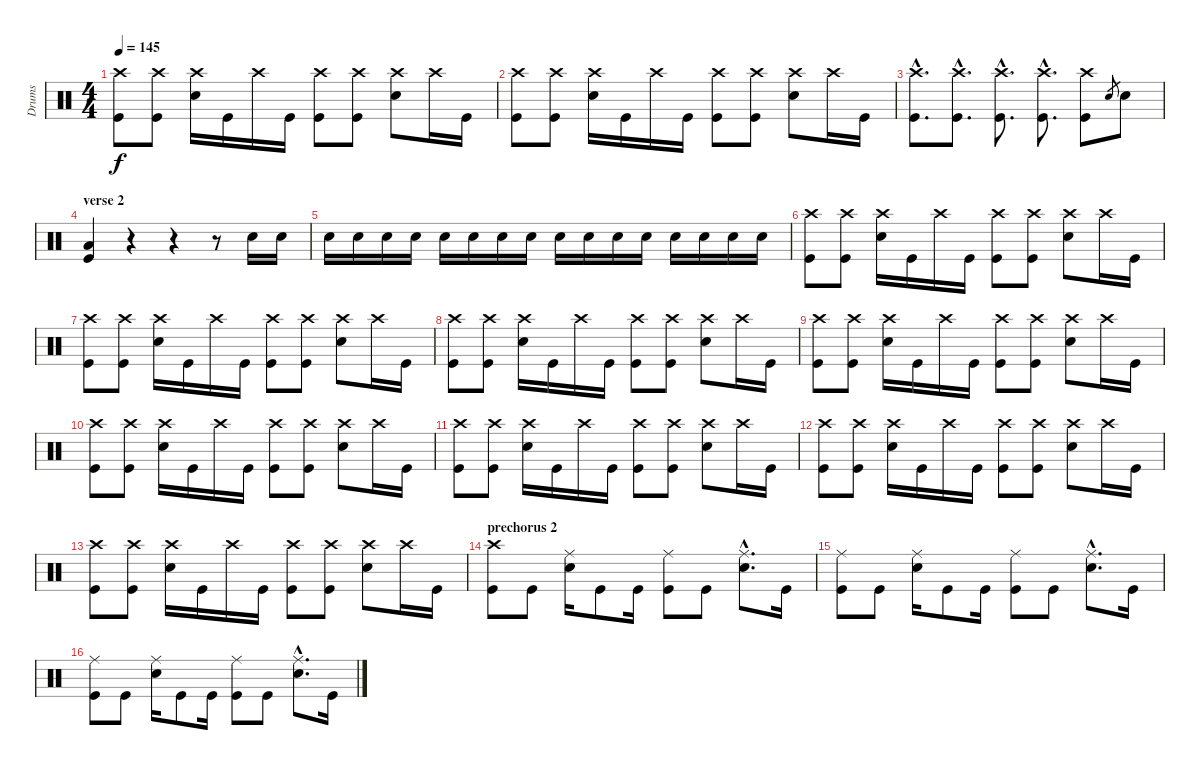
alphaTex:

\track ("Drums" "Drums") {instrument percussion}
\staff {score}
\articulation defaults
\ts (4 4)
\tempo 145
\clef neutral
\ks c
("Crash high (hit)" "Kick (hit)").8{dy f} ("Crash high (hit)" "Kick (hit)").8 ("Crash high (hit)" "Electric Snare (hit)").16 "Kick (hit)".16 "Crash high (hit)".16 "Kick (hit)".16 ("Crash high (hit)" "Kick (hit)").8 ("Crash high (hit)" "Kick (hit)").8 ("Crash high (hit)" "Electric Snare (hit)").8 "Crash high (hit)".16 "Kick (hit)".16 |
("Crash high (hit)" "Kick (hit)").8 ("Crash high (hit)" "Kick (hit)").8 ("Crash high (hit)" "Electric Snare (hit)").16 "Kick (hit)".16 "Crash high (hit)".16 "Kick (hit)".16 ("Crash high (hit)" "Kick (hit)").8 ("Crash high (hit)" "Kick (hit)").8 ("Crash high (hit)" "Electric Snare (hit)").8 "Crash high (hit)".16 "Kick (hit)".16 |
("Crash high (hit)"{hac} "Kick (hit)"{hac}).8{d} ("Crash high (hit)"{hac} "Kick (hit)"{hac}).8{d} ("Crash high (hit)"{hac} "Kick (hit)"{hac}).8{d} ("Crash high (hit)"{hac} "Kick (hit)"{hac}).8{d} ("Crash high (hit)" "Kick (hit)").8 "Electric Snare (hit)".8{gr} "Electric Snare (hit)".8 |
\section ("" "verse 2")
("Low Floor Tom (hit)" "Kick (hit)").4 r.4 r.4 r.8 "Electric Snare (hit)".16 "Electric Snare (hit)".16 |
"Electric Snare (hit)".16 "Electric Snare (hit)".16 "Electric Snare (hit)".16 "Electric Snare (hit)".16 "Electric Snare (hit)".16 "Electric Snare (hit)".16 "Electric Snare (hit)".16 "Electric Snare (hit)".16 "Electric Snare (hit)".16 "Electric Snare (hit)".16 "Electric Snare (hit)".16 "Electric Snare (hit)".16 "Electric Snare (hit)".16 "Electric Snare (hit)".16 "Electric Snare (hit)".16 "Electric Snare (hit)".16 |
("Crash high (hit)" "Kick (hit)").8 ("Crash high (hit)" "Kick (hit)").8 ("Crash high (hit)" "Electric Snare (hit)").16 "Kick (hit)".16 "Crash high (hit)".16 "Kick (hit)".16 ("Crash high (hit)" "Kick (hit)").8 ("Crash high (hit)" "Kick (hit)").8 ("Crash high (hit)" "Electric Snare (hit)").8 "Crash high (hit)".16 "Kick (hit)".16 |
("Crash high (hit)" "Kick (hit)").8 ("Crash high (hit)" "Kick (hit)").8 ("Crash high (hit)" "Electric Snare (hit)").16 "Kick (hit)".16 "Crash high (hit)".16 "Kick (hit)".16 ("Crash high (hit)" "Kick (hit)").8 ("Crash high (hit)" "Kick (hit)").8 ("Crash high (hit)" "Electric Snare (hit)").8 "Crash high (hit)".16 "Kick (hit)".16 |
("Crash high (hit)" "Kick (hit)").8 ("Crash high (hit)" "Kick (hit)").8 ("Crash high (hit)" "Electric Snare (hit)").16 "Kick (hit)".16 "Crash high (hit)".16 "Kick (hit)".16 ("Crash high (hit)" "Kick (hit)").8 ("Crash high (hit)" "Kick (hit)").8 ("Crash high (hit)" "Electric Snare (hit)").8 "Crash high (hit)".16 "Kick (hit)".16 |
("Crash high (hit)" "Kick (hit)").8 ("Crash high (hit)" "Kick (hit)").8 ("Crash high (hit)" "Electric Snare (hit)").16 "Kick (hit)".16 "Crash high (hit)".16 "Kick (hit)".16 ("Crash high (hit)" "Kick (hit)").8 ("Crash high (hit)" "Kick (hit)").8 ("Crash high (hit)" "Electric Snare (hit)").8 "Crash high (hit)".16 "Kick (hit)".16 |
("Crash high (hit)" "Kick (hit)").8 ("Crash high (hit)" "Kick (hit)").8 ("Crash high (hit)" "Electric Snare (hit)").16 "Kick (hit)".16 "Crash high (hit)".16 "Kick (hit)".16 ("Crash high (hit)" "Kick (hit)").8 ("Crash high (hit)" "Kick (hit)").8 ("Crash high (hit)" "Electric Snare (hit)").8 "Crash high (hit)".16 "Kick (hit)".16 |
("Crash high (hit)" "Kick (hit)").8 ("Crash high (hit)" "Kick (hit)").8 ("Crash high (hit)" "Electric Snare (hit)").16 "Kick (hit)".16 "Crash high (hit)".16 "Kick (hit)".16 ("Crash high (hit)" "Kick (hit)").8 ("Crash high (hit)" "Kick (hit)").8 ("Crash high (hit)" "Electric Snare (hit)").8 "Crash high (hit)".16 "Kick (hit)".16 |
("Crash high (hit)" "Kick (hit)").8 ("Crash high (hit)" "Kick (hit)").8 ("Crash high (hit)" "Electric Snare (hit)").16 "Kick (hit)".16 "Crash high (hit)".16 "Kick (hit)".16 ("Crash high (hit)" "Kick (hit)").8 ("Crash high (hit)" "Kick (hit)").8 ("Crash high (hit)" "Electric Snare (hit)").8 "Crash high (hit)".16 "Kick (hit)".16 |
("Crash high (hit)" "Kick (hit)").8 ("Crash high (hit)" "Kick (hit)").8 ("Crash high (hit)" "Electric Snare (hit)").16 "Kick (hit)".16 "Crash high (hit)".16 "Kick (hit)".16 ("Crash high (hit)" "Kick (hit)").8 ("Crash high (hit)" "Kick (hit)").8 ("Crash high (hit)" "Electric Snare (hit)").8 "Crash high (hit)".16 "Kick (hit)".16 |
\section ("" "prechorus 2")
("Crash high (hit)" "Kick (hit)").8 "Kick (hit)".8 ("Ride (middle)" "Electric Snare (hit)").16 "Kick (hit)".8 "Kick (hit)".16 ("Ride (middle)" "Kick (hit)").8 "Kick (hit)".8 ("Ride (middle)"{hac} "Electric Snare (hit)"{hac}).8{d} "Kick (hit)".16 |
("Ride (middle)" "Kick (hit)").8 "Kick (hit)".8 ("Ride (middle)" "Electric Snare (hit)").16 "Kick (hit)".8 "Kick (hit)".16 ("Ride (middle)" "Kick (hit)").8 "Kick (hit)".8 ("Ride (middle)"{hac} "Electric Snare (hit)"{hac}).8{d} "Kick (hit)".16 |
("Ride (middle)" "Kick (hit)").8 "Kick (hit)".8 ("Ride (middle)" "Electric Snare (hit)").16 "Kick (hit)".8 "Kick (hit)".16 ("Ride (middle)" "Kick (hit)").8 "Kick (hit)".8 ("Ride (middle)"{hac} "Electric Snare (hit)"{hac}).8{d} "Kick (hit)".16
